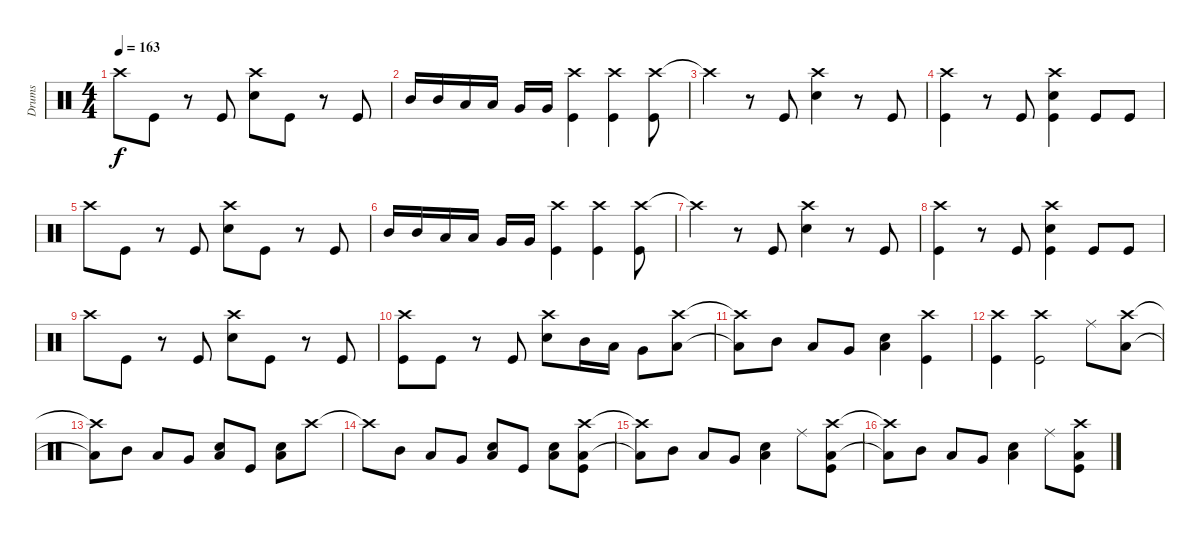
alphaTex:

\track ("Drums" "Drums") {instrument percussion}
\staff {score}
\articulation defaults
\ts (4 4)
\tempo 163
\clef neutral
\ks c "Crash high (hit)".8{dy f} "Kick (hit)".8
r.8 "Kick (hit)".8 ("Crash high (hit)" "Snare (hit) 2").8 "Kick (hit)".8 r.8 "Kick (hit)".8 |
"Mid Tom (hit)".16 "Mid Tom (hit)".16 "Low Tom (hit)".16 "Low Tom (hit)".16 "Very Low Tom (hit)".16 "Very Low Tom (hit)".16 ("Crash high (hit)" "Kick (hit)").4 ("Crash high (hit)" "Kick (hit)").4 ("Crash high (hit)" "Kick (hit)").8 |
"Crash high (hit)"{t}.4 r.8 "Kick (hit)".8 ("Crash high (hit)" "Snare (hit) 2").4 r.8 "Kick (hit)".8 |
("Crash high (hit)" "Kick (hit)").4 r.8 "Kick (hit)".8 ("Crash high (hit)" "Snare (hit) 2" "Kick (hit)").4 "Kick (hit)".8 "Kick (hit)".8 |
"Crash high (hit)".8 "Kick (hit)".8 r.8 "Kick (hit)".8 ("Crash high (hit)" "Snare (hit) 2").8 "Kick (hit)".8 r.8 "Kick (hit)".8 |
"Mid Tom (hit)".16 "Mid Tom (hit)".16 "Low Tom (hit)".16 "Low Tom (hit)".16 "Very Low Tom (hit)".16 "Very Low Tom (hit)".16 ("Crash high (hit)" "Kick (hit)").4 ("Crash high (hit)" "Kick (hit)").4 ("Crash high (hit)" "Kick (hit)").8 |
"Crash high (hit)"{t}.4 r.8 "Kick (hit)".8 ("Crash high (hit)" "Snare (hit) 2").4 r.8 "Kick (hit)".8 |
("Crash high (hit)" "Kick (hit)").4 r.8 "Kick (hit)".8 ("Crash high (hit)" "Snare (hit) 2" "Kick (hit)").4 "Kick (hit)".8 "Kick (hit)".8 |
"Crash high (hit)".8 "Kick (hit)".8 r.8 "Kick (hit)".8 ("Crash high (hit)" "Snare (hit) 2").8 "Kick (hit)".8 r.8 "Kick (hit)".8 |
("Crash high (hit)" "Kick (hit)").8 "Kick (hit)".8 r.8 "Kick (hit)".8 ("Crash high (hit)" "Snare (hit) 2").8 "Mid Tom (hit)".16 "Low Tom (hit)".16 "Very Low Tom (hit)".8 ("Crash high (hit)" "Low Floor Tom (hit)").8 |
("Crash high (hit)"{t} "Low Floor Tom (hit)"{t}).8 "Mid Tom (hit)".8 "Low Tom (hit)".8 "Very Low Tom (hit)".8 ("Snare (hit) 2" "Low Floor Tom (hit)").4 ("Crash high (hit)" "Kick (hit)").4 |
("Crash high (hit)" "Kick (hit)").4 ("Crash high (hit)" "Kick (hit)").2 "Ride (middle)".8 ("Crash high (hit)" "Low Floor Tom (hit)").8 |
("Crash high (hit)"{t} "Low Floor Tom (hit)"{t}).8 "Mid Tom (hit)".8 "Low Tom (hit)".8 "Very Low Tom (hit)".8 ("Snare (hit) 2" "Low Floor Tom (hit)").8 "Kick (hit)".8 ("Snare (hit) 2" "Low Floor Tom (hit)").8 "Crash high (hit)".8 |
"Crash high (hit)"{t}.8 "Mid Tom (hit)".8 "Low Tom (hit)".8 "Very Low Tom (hit)".8 ("Snare (hit) 2" "Low Floor Tom (hit)").8 "Kick (hit)".8 ("Snare (hit) 2" "Low Floor Tom (hit)").8 ("Crash high (hit)" "Low Floor Tom (hit)" "Kick (hit)").8 |
("Crash high (hit)"{t} "Low Floor Tom (hit)"{t}).8 "Mid Tom (hit)".8 "Low Tom (hit)".8 "Very Low Tom (hit)".8 ("Snare (hit) 2" "Low Floor Tom (hit)").4 "Ride (middle)".8 ("Crash high (hit)" "Low Floor Tom (hit)" "Kick (hit)").8 |
("Crash high (hit)"{t} "Low Floor Tom (hit)"{t}).8 "Mid Tom (hit)".8 "Low Tom (hit)".8 "Very Low Tom (hit)".8 ("Snare (hit) 2" "Low Floor Tom (hit)").4 "Ride (middle)".8 ("Crash high (hit)" "Low Floor Tom (hit)" "Kick (hit)").8
